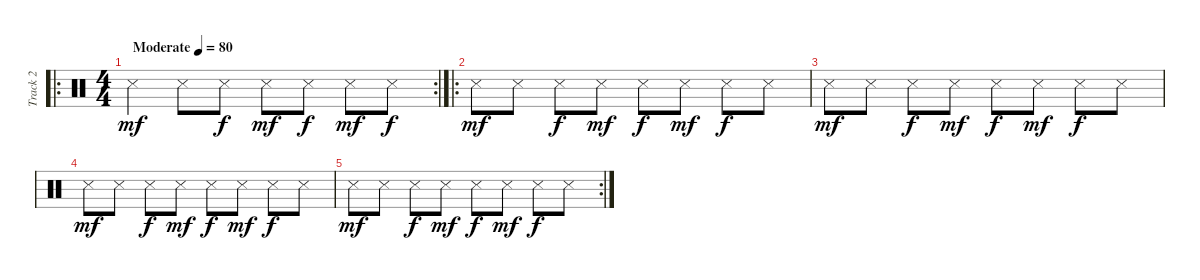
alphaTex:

\track ("Track 2" "Track 2") {instrument percussion}
\staff {score}
\articulation defaults
\ro
\rc 2
\ts (4 4)
\tempo (80 "Moderate")
\clef neutral
\ks c "Snare (side stick) 3".4{dy mf} "Snare (side stick) 3".8 "Snare (side stick) 3".8{dy f} "Snare (side stick) 3".8{dy mf} "Snare (side stick) 3".8{dy f} "Snare (side stick) 3".8{dy mf} "Snare (side stick) 3".8{dy f}
|
\ro "Snare (side stick) 3".8{dy mf} "Snare (side stick) 3".8 "Snare (side stick) 3".8{dy f} "Snare (side stick) 3".8{dy mf} "Snare (side stick) 3".8{dy f} "Snare (side stick) 3".8{dy mf} "Snare (side stick) 3".8{dy f} "Snare (side stick) 3".8
|
"Snare (side stick) 3".8{dy mf} "Snare (side stick) 3".8 "Snare (side stick) 3".8{dy f} "Snare (side stick) 3".8{dy mf} "Snare (side stick) 3".8{dy f} "Snare (side stick) 3".8{dy mf} "Snare (side stick) 3".8{dy f} "Snare (side stick) 3".8 |
"Snare (side stick) 3".8{dy mf} "Snare (side stick) 3".8 "Snare (side stick) 3".8{dy f} "Snare (side stick) 3".8{dy mf} "Snare (side stick) 3".8{dy f} "Snare (side stick) 3".8{dy mf} "Snare (side stick) 3".8{dy f} "Snare (side stick) 3".8 |
\rc 2 "Snare (side stick) 3".8{dy mf} "Snare (side stick) 3".8 "Snare (side stick) 3".8{dy f} "Snare (side stick) 3".8{dy mf} "Snare (side stick) 3".8{dy f} "Snare (side stick) 3".8{dy mf} "Snare (side stick) 3".8{dy f} "Snare (side stick) 3".8
